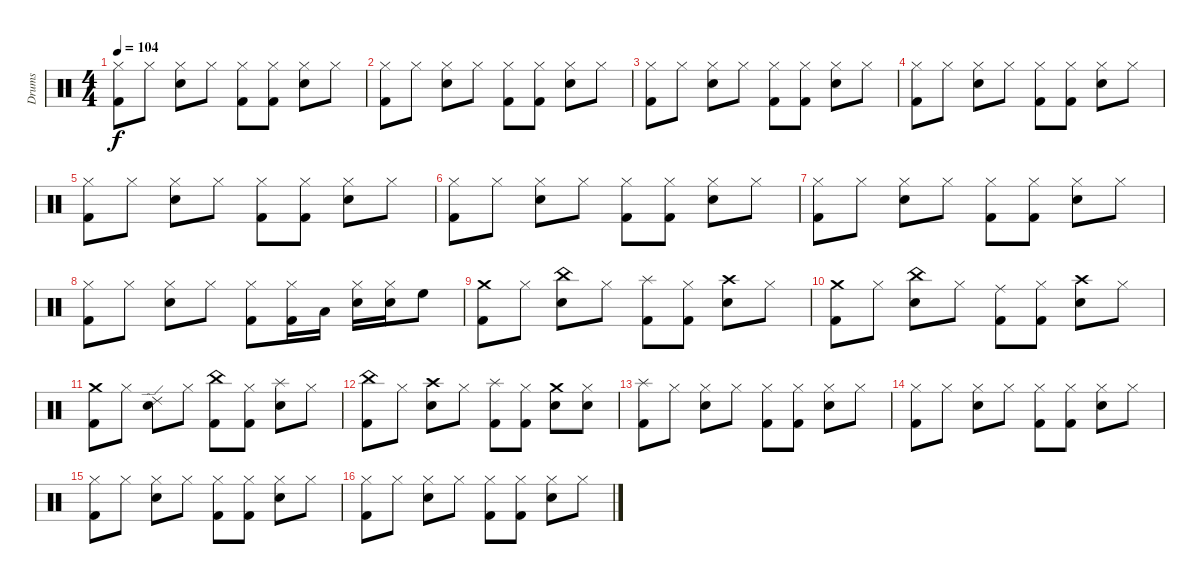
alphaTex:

\track ("Drums" "Drums") {instrument percussion}
\staff {score}
\articulation defaults
\ts (4 4)
\tempo 104
\clef neutral
\ks c
("Kick (hit) 2" "Hi-Hat (closed)").8{dy f} "Hi-Hat (closed)".8 ("Snare (hit) 2" "Hi-Hat (closed)").8 "Hi-Hat (closed)".8 ("Kick (hit) 2" "Hi-Hat (closed)").8 ("Kick (hit) 2" "Hi-Hat (closed)").8 ("Snare (hit) 2" "Hi-Hat (closed)").8 "Hi-Hat (closed)".8 |
("Kick (hit) 2" "Hi-Hat (closed)").8 "Hi-Hat (closed)".8 ("Snare (hit) 2" "Hi-Hat (closed)").8 "Hi-Hat (closed)".8 ("Kick (hit) 2" "Hi-Hat (closed)").8 ("Kick (hit) 2" "Hi-Hat (closed)").8 ("Snare (hit) 2" "Hi-Hat (closed)").8 "Hi-Hat (closed)".8 |
("Kick (hit) 2" "Hi-Hat (closed)").8 "Hi-Hat (closed)".8 ("Snare (hit) 2" "Hi-Hat (closed)").8 "Hi-Hat (closed)".8 ("Kick (hit) 2" "Hi-Hat (closed)").8 ("Kick (hit) 2" "Hi-Hat (closed)").8 ("Snare (hit) 2" "Hi-Hat (closed)").8 "Hi-Hat (closed)".8 |
("Kick (hit) 2" "Hi-Hat (closed)").8 "Hi-Hat (closed)".8 ("Snare (hit) 2" "Hi-Hat (closed)").8 "Hi-Hat (closed)".8 ("Kick (hit) 2" "Hi-Hat (closed)").8 ("Kick (hit) 2" "Hi-Hat (closed)").8 ("Snare (hit) 2" "Hi-Hat (closed)").8 "Hi-Hat (closed)".8 |
("Kick (hit) 2" "Hi-Hat (closed)").8 "Hi-Hat (closed)".8 ("Snare (hit) 2" "Hi-Hat (closed)").8 "Hi-Hat (closed)".8 ("Kick (hit) 2" "Hi-Hat (closed)").8 ("Kick (hit) 2" "Hi-Hat (closed)").8 ("Snare (hit) 2" "Hi-Hat (closed)").8 "Hi-Hat (closed)".8 |
("Kick (hit) 2" "Hi-Hat (closed)").8 "Hi-Hat (closed)".8 ("Snare (hit) 2" "Hi-Hat (closed)").8 "Hi-Hat (closed)".8 ("Kick (hit) 2" "Hi-Hat (closed)").8 ("Kick (hit) 2" "Hi-Hat (closed)").8 ("Snare (hit) 2" "Hi-Hat (closed)").8 "Hi-Hat (closed)".8 |
("Kick (hit) 2" "Hi-Hat (closed)").8 "Hi-Hat (closed)".8 ("Snare (hit) 2" "Hi-Hat (closed)").8 "Hi-Hat (closed)".8 ("Kick (hit) 2" "Hi-Hat (closed)").8 ("Kick (hit) 2" "Hi-Hat (closed)").8 ("Snare (hit) 2" "Hi-Hat (closed)").8 "Hi-Hat (closed)".8 |
("Kick (hit) 2" "Hi-Hat (closed)").8 "Hi-Hat (closed)".8 ("Snare (hit) 2" "Hi-Hat (closed)").8 "Hi-Hat (closed)".8 ("Kick (hit) 2" "Hi-Hat (closed)").8 ("Kick (hit) 2" "Hi-Hat (closed)").16 "Low Tom (hit)".16 ("Snare (hit) 2" "Hi-Hat (closed)").16 ("Snare (hit) 2" "Hi-Hat (closed)").16 "High Floor Tom (hit)".8 |
("Kick (hit) 2" "Crash medium (hit)").8 "Hi-Hat (closed)".8 ("Snare (hit) 2" "China (hit)").8 "Hi-Hat (closed)".8 ("Kick (hit) 2" "Splash (hit)").8 ("Kick (hit) 2" "Hi-Hat (closed)").8 ("Snare (hit) 2" "Crash high (hit)").8 "Hi-Hat (closed)".8 |
("Kick (hit) 2" "Crash medium (hit)").8 "Hi-Hat (closed)".8 ("Snare (hit) 2" "China (hit)").8 "Hi-Hat (closed)".8 ("Kick (hit) 2" "Ride (middle)").8 ("Kick (hit) 2" "Hi-Hat (closed)").8 ("Snare (hit) 2" "Crash high (hit)").8 "Hi-Hat (closed)".8 |
("Kick (hit) 2" "Crash medium (hit)").8 "Hi-Hat (closed)".8 ("Snare (hit) 2" "Ride (edge) 2").8 "Hi-Hat (closed)".8 ("Kick (hit) 2" "China (hit)").8 ("Kick (hit) 2" "Hi-Hat (closed)").8 ("Snare (hit) 2" "Splash (hit)").8 "Hi-Hat (closed)".8 |
("Kick (hit) 2" "China (hit)").8 "Hi-Hat (closed)".8 ("Snare (hit) 2" "Crash high (hit)").8 "Hi-Hat (closed)".8 ("Kick (hit) 2" "Splash (hit)").8 ("Kick (hit) 2" "Hi-Hat (closed)").8 ("Snare (hit) 2" "Crash medium (hit)").8 ("Snare (hit) 2" "Hi-Hat (closed)").8 |
("Kick (hit) 2" "Splash (hit)").8 "Hi-Hat (closed)".8 ("Snare (hit) 2" "Hi-Hat (closed)").8 "Hi-Hat (closed)".8 ("Kick (hit) 2" "Hi-Hat (closed)").8 ("Kick (hit) 2" "Hi-Hat (closed)").8 ("Snare (hit) 2" "Hi-Hat (closed)").8 "Hi-Hat (closed)".8 |
("Kick (hit) 2" "Hi-Hat (closed)").8 "Hi-Hat (closed)".8 ("Snare (hit) 2" "Hi-Hat (closed)").8 "Hi-Hat (closed)".8 ("Kick (hit) 2" "Hi-Hat (closed)").8 ("Kick (hit) 2" "Hi-Hat (closed)").8 ("Snare (hit) 2" "Hi-Hat (closed)").8 "Hi-Hat (closed)".8 |
("Kick (hit) 2" "Hi-Hat (closed)").8 "Hi-Hat (closed)".8 ("Snare (hit) 2" "Hi-Hat (closed)").8 "Hi-Hat (closed)".8 ("Kick (hit) 2" "Hi-Hat (closed)").8 ("Kick (hit) 2" "Hi-Hat (closed)").8 ("Snare (hit) 2" "Hi-Hat (closed)").8 "Hi-Hat (closed)".8 |
("Kick (hit) 2" "Hi-Hat (closed)").8 "Hi-Hat (closed)".8 ("Snare (hit) 2" "Hi-Hat (closed)").8 "Hi-Hat (closed)".8 ("Kick (hit) 2" "Hi-Hat (closed)").8 ("Kick (hit) 2" "Hi-Hat (closed)").8 ("Snare (hit) 2" "Hi-Hat (closed)").8 "Hi-Hat (closed)".8
